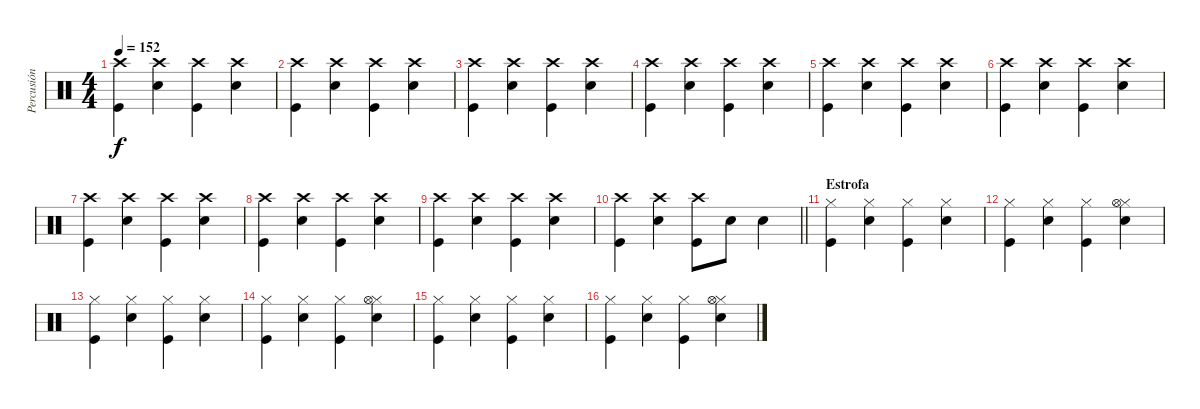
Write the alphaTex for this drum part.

\track ("Percusión" "Percusión") {instrument percussion}
\staff {score}
\articulation defaults
\ts (4 4)
\tempo 152
\clef neutral
\ks c
("Kick (hit)" "Crash high (hit)").4{dy f} ("Crash high (hit)" "Snare (hit) 2").4 ("Crash high (hit)" "Kick (hit)").4 ("Crash high (hit)" "Snare (hit) 2").4 |
("Crash high (hit)" "Kick (hit)").4 ("Crash high (hit)" "Snare (hit) 2").4 ("Crash high (hit)" "Kick (hit)").4 ("Crash high (hit)" "Snare (hit) 2").4 |
("Crash high (hit)" "Kick (hit)").4 ("Snare (hit) 2" "Crash high (hit)").4 ("Crash high (hit)" "Kick (hit)").4 ("Crash high (hit)" "Snare (hit) 2").4 |
("Crash high (hit)" "Kick (hit)").4 ("Crash high (hit)" "Snare (hit) 2").4 ("Crash high (hit)" "Kick (hit)").4 ("Crash high (hit)" "Snare (hit) 2").4 |
("Crash high (hit)" "Kick (hit)").4 ("Crash high (hit)" "Snare (hit) 2").4 ("Crash high (hit)" "Kick (hit)").4 ("Crash high (hit)" "Snare (hit) 2").4 |
("Crash high (hit)" "Kick (hit)").4 ("Crash high (hit)" "Snare (hit) 2").4 ("Crash high (hit)" "Kick (hit)").4 ("Crash high (hit)" "Snare (hit) 2").4 |
("Kick (hit)" "Crash high (hit)").4 ("Crash high (hit)" "Snare (hit) 2").4 ("Crash high (hit)" "Kick (hit)").4 ("Crash high (hit)" "Snare (hit) 2").4 |
("Crash high (hit)" "Kick (hit)").4 ("Crash high (hit)" "Snare (hit) 2").4 ("Crash high (hit)" "Kick (hit)").4 ("Crash high (hit)" "Snare (hit) 2").4 |
("Crash high (hit)" "Kick (hit)").4 ("Snare (hit) 2" "Crash high (hit)").4 ("Crash high (hit)" "Kick (hit)").4 ("Crash high (hit)" "Snare (hit) 2").4 |
\barLineRight lightlight
("Crash high (hit)" "Kick (hit)").4 ("Crash high (hit)" "Snare (hit) 2").4 ("Crash high (hit)" "Kick (hit)").8 "Snare (hit) 2".8 "Snare (hit) 2".4 |
\section ("" "Estrofa")
("Hi-Hat (closed)" "Kick (hit)").4 ("Hi-Hat (closed)" "Snare (hit) 2").4 ("Hi-Hat (closed)" "Kick (hit)").4 ("Hi-Hat (closed)" "Snare (hit) 2").4 |
("Hi-Hat (closed)" "Kick (hit)").4 ("Hi-Hat (closed)" "Snare (hit) 2").4 ("Hi-Hat (closed)" "Kick (hit)").4 ("Hi-Hat (closed)" "Snare (hit) 2" "Hi-Hat (open)").4 |
("Hi-Hat (closed)" "Kick (hit)").4 ("Hi-Hat (closed)" "Snare (hit) 2").4 ("Hi-Hat (closed)" "Kick (hit)").4 ("Hi-Hat (closed)" "Snare (hit) 2").4 |
("Hi-Hat (closed)" "Kick (hit)").4 ("Hi-Hat (closed)" "Snare (hit) 2").4 ("Hi-Hat (closed)" "Kick (hit)").4 ("Hi-Hat (closed)" "Snare (hit) 2" "Hi-Hat (open)").4 |
("Hi-Hat (closed)" "Kick (hit)").4 ("Hi-Hat (closed)" "Snare (hit) 2").4 ("Hi-Hat (closed)" "Kick (hit)").4 ("Hi-Hat (closed)" "Snare (hit) 2").4 |
("Hi-Hat (closed)" "Kick (hit)").4 ("Hi-Hat (closed)" "Snare (hit) 2").4 ("Hi-Hat (closed)" "Kick (hit)").4 ("Hi-Hat (closed)" "Snare (hit) 2" "Hi-Hat (open)").4
